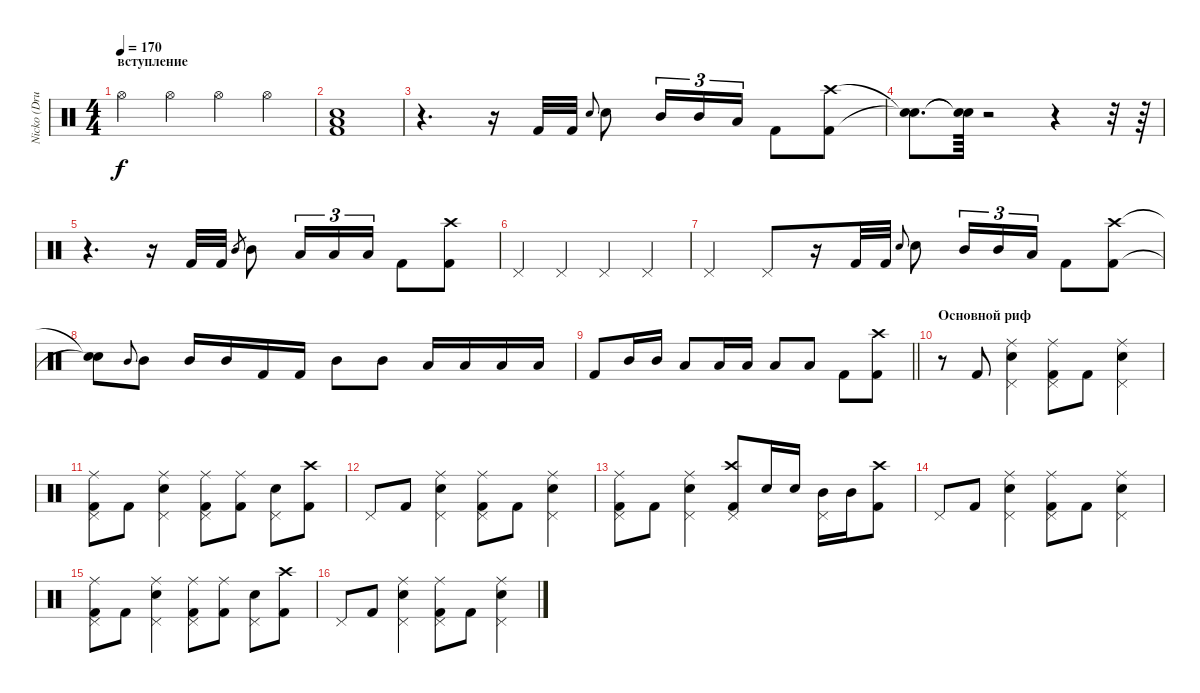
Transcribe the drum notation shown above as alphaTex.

\track ("Nicko (Drums)" "Nicko (Dru") {instrument percussion}
\staff {score}
\articulation defaults
\ts (4 4)
\section ("" "вступление")
\tempo 170
\clef neutral
\ks c "Hi-Hat (open)".4{dy f} "Hi-Hat (open)".4 "Hi-Hat (open)".4 "Hi-Hat (open)".4
|
("Snare (hit) 2" "Low Floor Tom (hit)" "Kick (hit) 2").1 |
r.4{d} r.16 "Kick (hit) 2".32 "Kick (hit) 2".32 "Snare (hit) 2".8{gr onbeat} "Snare (hit) 2".8 "Mid Tom (hit)".16{tu (3 2)} "Mid Tom (hit)".16{tu (3 2)} "Low Tom (hit)".16{tu (3 2)} "Kick (hit) 2".8 ("Kick (hit) 2" "Crash high (hit)").8 |
("Snare (hit)"{t} "Snare (hit)"{t}).8{d} ("Snare (hit)"{t} "Snare (hit)"{t}).64 r.2 r.4 r.32 r.64 |
r.4{d} r.16 "Kick (hit) 2".32 "Kick (hit) 2".32 "Mid Tom (hit)".8{gr} "Mid Tom (hit)".8 "Low Tom (hit)".16{tu (3 2)} "Low Tom (hit)".16{tu (3 2)} "Low Floor Tom (hit)".16{tu (3 2)} "Kick (hit) 2".8 ("Kick (hit) 2" "Crash high (hit)").8 |
"Pedal Hi-Hat (hit)".4 "Pedal Hi-Hat (hit)".4 "Pedal Hi-Hat (hit)".4 "Pedal Hi-Hat (hit)".4 |
"Pedal Hi-Hat (hit)".4 "Pedal Hi-Hat (hit)".8 r.16 "Kick (hit) 2".32 "Kick (hit) 2".32 "Snare (hit) 2".8{gr onbeat} "Snare (hit) 2".8 "Mid Tom (hit)".16{tu (3 2)} "Mid Tom (hit)".16{tu (3 2)} "Low Tom (hit)".16{tu (3 2)} "Kick (hit) 2".8 ("Kick (hit) 2" "Crash high (hit)").8 |
("Snare (hit)"{t} "Snare (hit)"{t}).8 "Mid Tom (hit)".8{gr onbeat} "Mid Tom (hit)".8 "Mid Tom (hit)".16 "Mid Tom (hit)".16 "Kick (hit) 2".16 "Kick (hit) 2".16 "Mid Tom (hit)".8 "Mid Tom (hit)".8 "Low Tom (hit)".16 "Low Tom (hit)".16 "Low Floor Tom (hit)".16 "Low Floor Tom (hit)".16 |
\barLineRight lightlight "Kick (hit) 2".8 "Mid Tom (hit)".16 "Mid Tom (hit)".16 "Low Tom (hit)".8 "Low Tom (hit)".16 "Low Tom (hit)".16 "Low Floor Tom (hit)".8 "Low Floor Tom (hit)".8 "Kick (hit) 2".8
("Crash high (hit)" "Kick (hit) 2").8 |
\section ("" "Основной риф")
r.8 "Kick (hit) 2".8 ("Ride (middle)" "Snare (hit) 2" "Pedal Hi-Hat (hit)").4 ("Ride (middle)" "Pedal Hi-Hat (hit)" "Kick (hit) 2").8 "Kick (hit) 2".8 ("Ride (middle)" "Snare (hit) 2" "Pedal Hi-Hat (hit)").4 |
("Ride (middle)" "Pedal Hi-Hat (hit)" "Kick (hit) 2").8 "Kick (hit) 2".8 ("Ride (middle)" "Snare (hit) 2" "Pedal Hi-Hat (hit)").4 ("Ride (middle)" "Pedal Hi-Hat (hit)" "Kick (hit) 2").8 ("Ride (middle)" "Kick (hit) 2").8 ("Snare (hit) 2" "Pedal Hi-Hat (hit)").8 ("Crash high (hit)" "Kick (hit) 2").8 |
"Pedal Hi-Hat (hit)".8 "Kick (hit) 2".8 ("Ride (middle)" "Snare (hit) 2" "Pedal Hi-Hat (hit)").4 ("Ride (middle)" "Pedal Hi-Hat (hit)" "Kick (hit) 2").8 "Kick (hit) 2".8 ("Ride (middle)" "Snare (hit) 2" "Pedal Hi-Hat (hit)").4 |
("Ride (middle)" "Pedal Hi-Hat (hit)" "Kick (hit) 2").8 "Kick (hit) 2".8 ("Ride (middle)" "Snare (hit) 2" "Pedal Hi-Hat (hit)").4 ("Crash high (hit)" "Pedal Hi-Hat (hit)" "Kick (hit) 2").8 "Snare (hit) 2".16 "Snare (hit) 2".16 ("Mid Tom (hit)" "Pedal Hi-Hat (hit)").16 "Mid Tom (hit)".16 ("Crash high (hit)" "Kick (hit) 2").8 |
"Pedal Hi-Hat (hit)".8 "Kick (hit) 2".8 ("Ride (middle)" "Snare (hit) 2" "Pedal Hi-Hat (hit)").4 ("Ride (middle)" "Pedal Hi-Hat (hit)" "Kick (hit) 2").8 "Kick (hit) 2".8 ("Ride (middle)" "Snare (hit) 2" "Pedal Hi-Hat (hit)").4 |
("Ride (middle)" "Pedal Hi-Hat (hit)" "Kick (hit) 2").8 "Kick (hit) 2".8 ("Ride (middle)" "Snare (hit) 2" "Pedal Hi-Hat (hit)").4 ("Ride (middle)" "Pedal Hi-Hat (hit)" "Kick (hit) 2").8 ("Ride (middle)" "Kick (hit) 2").8 ("Snare (hit) 2" "Pedal Hi-Hat (hit)").8 ("Crash high (hit)" "Kick (hit) 2").8 |
"Pedal Hi-Hat (hit)".8 "Kick (hit) 2".8 ("Ride (middle)" "Snare (hit) 2" "Pedal Hi-Hat (hit)").4 ("Ride (middle)" "Pedal Hi-Hat (hit)" "Kick (hit) 2").8 "Kick (hit) 2".8 ("Ride (middle)" "Snare (hit) 2" "Pedal Hi-Hat (hit)").4
